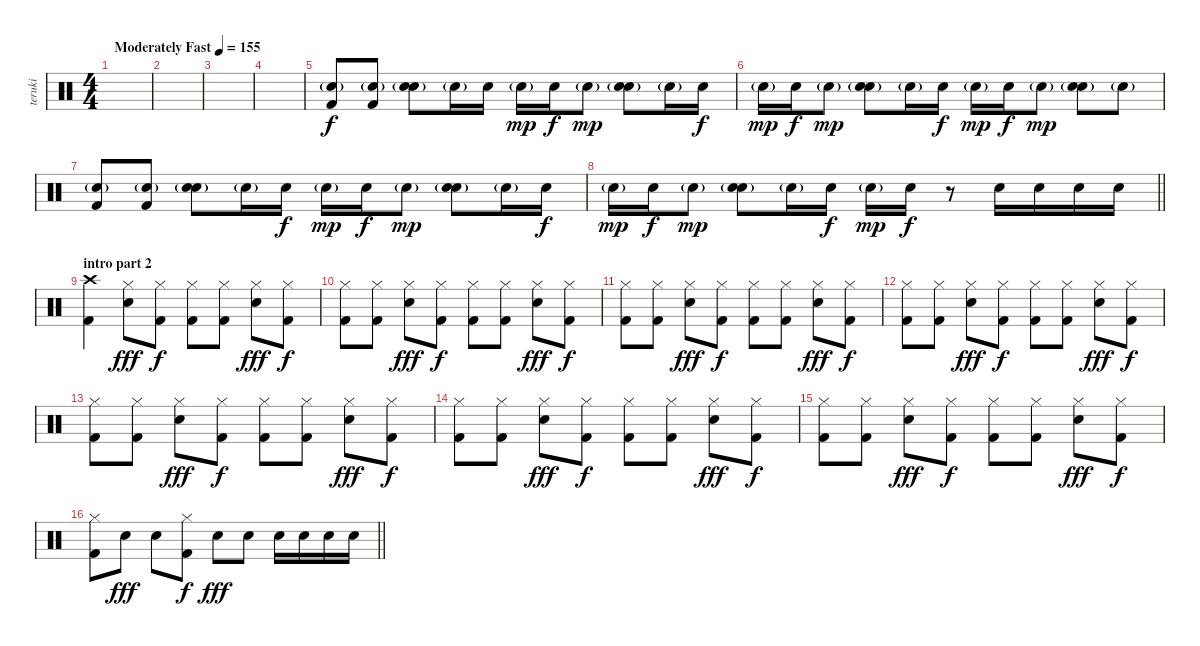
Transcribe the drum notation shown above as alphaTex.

\track ("teruki" "teruki") {instrument percussion}
\staff {score}
\articulation defaults
\ts (4 4)
\tempo (155 "Moderately Fast")
\clef neutral
\ks c
|
|
|
|
("Electric Snare (hit)"{g} "Kick (hit) 2").8{volume 9} ("Electric Snare (hit)"{g} "Kick (hit) 2").8 ("Electric Snare (hit)"{g} "Electric Snare (hit)").8 "Electric Snare (hit)"{g}.16 "Electric Snare (hit)".16{dy f} "Electric Snare (hit)"{g}.16{dy mp} "Electric Snare (hit)".16{dy f} "Electric Snare (hit)"{g}.8{dy mp} ("Electric Snare (hit)"{g} "Electric Snare (hit)").8 "Electric Snare (hit)"{g}.16 "Electric Snare (hit)".16{dy f} |
"Electric Snare (hit)"{g}.16{dy mp} "Electric Snare (hit)".16{dy f} "Electric Snare (hit)"{g}.8{dy mp} ("Electric Snare (hit)"{g} "Electric Snare (hit)").8 "Electric Snare (hit)"{g}.16 "Electric Snare (hit)".16{dy f} "Electric Snare (hit)"{g}.16{dy mp} "Electric Snare (hit)".16{dy f} "Electric Snare (hit)"{g}.8{dy mp} ("Electric Snare (hit)"{g} "Electric Snare (hit)").8 "Electric Snare (hit)"{g}.8 |
("Electric Snare (hit)"{g} "Kick (hit) 2").8 ("Electric Snare (hit)"{g} "Kick (hit) 2").8 ("Electric Snare (hit)"{g} "Electric Snare (hit)").8 "Electric Snare (hit)"{g}.16 "Electric Snare (hit)".16{dy f} "Electric Snare (hit)"{g}.16{dy mp} "Electric Snare (hit)".16{dy f} "Electric Snare (hit)"{g}.8{dy mp} ("Electric Snare (hit)"{g} "Electric Snare (hit)").8 "Electric Snare (hit)"{g}.16 "Electric Snare (hit)".16{dy f} |
\barLineRight lightlight "Electric Snare (hit)"{g}.16{dy mp} "Electric Snare (hit)".16{dy f} "Electric Snare (hit)"{g}.8{dy mp}
("Electric Snare (hit)"{g} "Electric Snare (hit)").8 "Electric Snare (hit)"{g}.16 "Electric Snare (hit)".16{dy f} "Electric Snare (hit)"{g}.16{dy mp} "Electric Snare (hit)".16{dy f} r.8{volume 16} "Electric Snare (hit)".16 "Electric Snare (hit)".16 "Electric Snare (hit)".16 "Electric Snare (hit)".16 |
\section ("" "intro part 2")
("Crash high (hit)" "Kick (hit) 2").4 ("Hi-Hat (closed)" "Electric Snare (hit)").8{dy fff} ("Hi-Hat (closed)" "Kick (hit) 2").8{dy f} ("Hi-Hat (closed)" "Kick (hit) 2").8 ("Hi-Hat (closed)" "Kick (hit) 2").8 ("Hi-Hat (closed)" "Electric Snare (hit)").8{dy fff} ("Hi-Hat (closed)" "Kick (hit) 2").8{dy f} |
("Hi-Hat (closed)" "Kick (hit) 2").8 ("Hi-Hat (closed)" "Kick (hit) 2").8 ("Hi-Hat (closed)" "Electric Snare (hit)").8{dy fff} ("Hi-Hat (closed)" "Kick (hit) 2").8{dy f} ("Hi-Hat (closed)" "Kick (hit) 2").8 ("Hi-Hat (closed)" "Kick (hit) 2").8 ("Hi-Hat (closed)" "Electric Snare (hit)").8{dy fff} ("Hi-Hat (closed)" "Kick (hit) 2").8{dy f} |
("Hi-Hat (closed)" "Kick (hit) 2").8 ("Hi-Hat (closed)" "Kick (hit) 2").8 ("Hi-Hat (closed)" "Electric Snare (hit)").8{dy fff} ("Hi-Hat (closed)" "Kick (hit) 2").8{dy f} ("Hi-Hat (closed)" "Kick (hit) 2").8 ("Hi-Hat (closed)" "Kick (hit) 2").8 ("Hi-Hat (closed)" "Electric Snare (hit)").8{dy fff} ("Hi-Hat (closed)" "Kick (hit) 2").8{dy f} |
("Hi-Hat (closed)" "Kick (hit) 2").8 ("Hi-Hat (closed)" "Kick (hit) 2").8 ("Hi-Hat (closed)" "Electric Snare (hit)").8{dy fff} ("Hi-Hat (closed)" "Kick (hit) 2").8{dy f} ("Hi-Hat (closed)" "Kick (hit) 2").8 ("Hi-Hat (closed)" "Kick (hit) 2").8 ("Hi-Hat (closed)" "Electric Snare (hit)").8{dy fff} ("Hi-Hat (closed)" "Kick (hit) 2").8{dy f} |
("Hi-Hat (closed)" "Kick (hit) 2").8 ("Hi-Hat (closed)" "Kick (hit) 2").8 ("Hi-Hat (closed)" "Electric Snare (hit)").8{dy fff} ("Hi-Hat (closed)" "Kick (hit) 2").8{dy f} ("Hi-Hat (closed)" "Kick (hit) 2").8 ("Hi-Hat (closed)" "Kick (hit) 2").8 ("Hi-Hat (closed)" "Electric Snare (hit)").8{dy fff} ("Hi-Hat (closed)" "Kick (hit) 2").8{dy f} |
("Hi-Hat (closed)" "Kick (hit) 2").8 ("Hi-Hat (closed)" "Kick (hit) 2").8 ("Hi-Hat (closed)" "Electric Snare (hit)").8{dy fff} ("Hi-Hat (closed)" "Kick (hit) 2").8{dy f} ("Hi-Hat (closed)" "Kick (hit) 2").8 ("Hi-Hat (closed)" "Kick (hit) 2").8 ("Hi-Hat (closed)" "Electric Snare (hit)").8{dy fff} ("Hi-Hat (closed)" "Kick (hit) 2").8{dy f} |
("Hi-Hat (closed)" "Kick (hit) 2").8 ("Hi-Hat (closed)" "Kick (hit) 2").8 ("Hi-Hat (closed)" "Electric Snare (hit)").8{dy fff} ("Hi-Hat (closed)" "Kick (hit) 2").8{dy f} ("Hi-Hat (closed)" "Kick (hit) 2").8 ("Hi-Hat (closed)" "Kick (hit) 2").8 ("Hi-Hat (closed)" "Electric Snare (hit)").8{dy fff} ("Hi-Hat (closed)" "Kick (hit) 2").8{dy f} |
\barLineRight lightlight
("Hi-Hat (closed)" "Kick (hit) 2").8 "Electric Snare (hit)".8{dy fff} "Electric Snare (hit)".8 ("Hi-Hat (closed)" "Kick (hit) 2").8{dy f} "Electric Snare (hit)".8{dy fff} "Electric Snare (hit)".8 "Electric Snare (hit)".16 "Electric Snare (hit)".16 "Electric Snare (hit)".16 "Electric Snare (hit)".16
